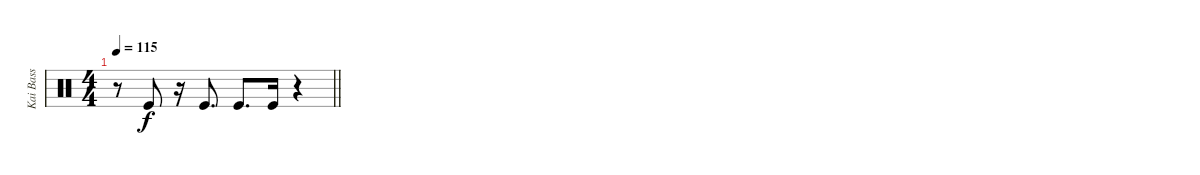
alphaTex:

\track ("Kai Bass" "Kai Bass") {instrument percussion}
\staff {score}
\articulation defaults
\ts (4 4)
\tempo 115
\clef neutral
\barLineRight lightlight
\ks c
r.8{dy f} "Kick (hit)".8 r.16 "Kick (hit)".8{d} "Kick (hit)".8{d} "Kick (hit)".16 r.4
